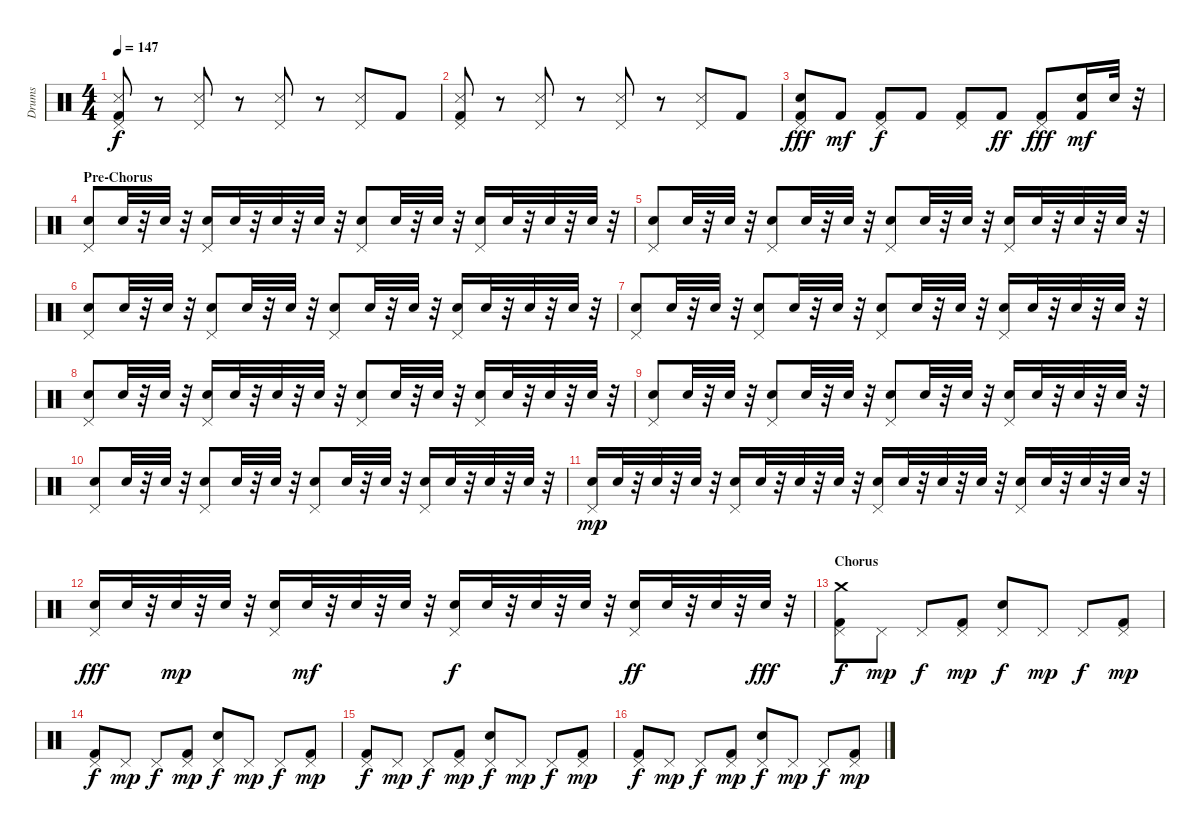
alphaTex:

\track ("Drums" "Drums") {instrument percussion}
\staff {score}
\articulation defaults
\ts (4 4)
\tempo 147
\clef neutral
\ks c
("Pedal Hi-Hat (hit)" "Kick (hit) 2" "Snare (side stick) 3").8{dy f} r.8 ("Pedal Hi-Hat (hit)" "Snare (side stick) 3").8 r.8 ("Pedal Hi-Hat (hit)" "Snare (side stick) 3").8 r.8 ("Pedal Hi-Hat (hit)" "Snare (side stick) 3").8 "Kick (hit) 2".8 |
("Pedal Hi-Hat (hit)" "Kick (hit) 2" "Snare (side stick) 3").8 r.8 ("Pedal Hi-Hat (hit)" "Snare (side stick) 3").8 r.8 ("Pedal Hi-Hat (hit)" "Snare (side stick) 3").8 r.8 ("Pedal Hi-Hat (hit)" "Snare (side stick) 3").8 "Kick (hit) 2".8 |
("Pedal Hi-Hat (hit)" "Kick (hit) 2" "Snare (hit) 2").8{dy fff} "Kick (hit) 2".8{dy mf} ("Pedal Hi-Hat (hit)" "Kick (hit) 2").8{dy f} "Kick (hit) 2".8 ("Pedal Hi-Hat (hit)" "Kick (hit) 2").8 "Kick (hit) 2".8{dy ff} ("Pedal Hi-Hat (hit)" "Kick (hit) 2").8{dy fff} ("Kick (hit) 2" "Snare (hit) 2").16{dy mf} "Snare (hit) 2".32 r.32 |
\section ("" "Pre-Chorus")
("Pedal Hi-Hat (hit)" "Snare (hit) 2").8 "Snare (hit) 2".32 r.32 "Snare (hit) 2".32 r.32 ("Pedal Hi-Hat (hit)" "Snare (hit) 2").16 "Snare (hit) 2".32 r.32 "Snare (hit) 2".32 r.32 "Snare (hit) 2".32 r.32 ("Pedal Hi-Hat (hit)" "Snare (hit) 2").8 "Snare (hit) 2".32 r.32 "Snare (hit) 2".32 r.32 ("Pedal Hi-Hat (hit)" "Snare (hit) 2").16 "Snare (hit) 2".32 r.32 "Snare (hit) 2".32 r.32 "Snare (hit) 2".32 r.32 |
("Pedal Hi-Hat (hit)" "Snare (hit) 2").8 "Snare (hit) 2".32 r.32 "Snare (hit) 2".32 r.32 ("Pedal Hi-Hat (hit)" "Snare (hit) 2").8 "Snare (hit) 2".32 r.32 "Snare (hit) 2".32 r.32 ("Pedal Hi-Hat (hit)" "Snare (hit) 2").8 "Snare (hit) 2".32 r.32 "Snare (hit) 2".32 r.32 ("Pedal Hi-Hat (hit)" "Snare (hit) 2").16 "Snare (hit) 2".32 r.32 "Snare (hit) 2".32 r.32 "Snare (hit) 2".32 r.32 |
("Pedal Hi-Hat (hit)" "Snare (hit) 2").8 "Snare (hit) 2".32 r.32 "Snare (hit) 2".32 r.32 ("Pedal Hi-Hat (hit)" "Snare (hit) 2").8 "Snare (hit) 2".32 r.32 "Snare (hit) 2".32 r.32 ("Pedal Hi-Hat (hit)" "Snare (hit) 2").8 "Snare (hit) 2".32 r.32 "Snare (hit) 2".32 r.32 ("Pedal Hi-Hat (hit)" "Snare (hit) 2").16 "Snare (hit) 2".32 r.32 "Snare (hit) 2".32 r.32 "Snare (hit) 2".32 r.32 |
("Pedal Hi-Hat (hit)" "Snare (hit) 2").8 "Snare (hit) 2".32 r.32 "Snare (hit) 2".32 r.32 ("Pedal Hi-Hat (hit)" "Snare (hit) 2").8 "Snare (hit) 2".32 r.32 "Snare (hit) 2".32 r.32 ("Pedal Hi-Hat (hit)" "Snare (hit) 2").8 "Snare (hit) 2".32 r.32 "Snare (hit) 2".32 r.32 ("Pedal Hi-Hat (hit)" "Snare (hit) 2").16 "Snare (hit) 2".32 r.32 "Snare (hit) 2".32 r.32 "Snare (hit) 2".32 r.32 |
("Pedal Hi-Hat (hit)" "Snare (hit) 2").8 "Snare (hit) 2".32 r.32 "Snare (hit) 2".32 r.32 ("Pedal Hi-Hat (hit)" "Snare (hit) 2").16 "Snare (hit) 2".32 r.32 "Snare (hit) 2".32 r.32 "Snare (hit) 2".32 r.32 ("Pedal Hi-Hat (hit)" "Snare (hit) 2").8 "Snare (hit) 2".32 r.32 "Snare (hit) 2".32 r.32 ("Pedal Hi-Hat (hit)" "Snare (hit) 2").16 "Snare (hit) 2".32 r.32 "Snare (hit) 2".32 r.32 "Snare (hit) 2".32 r.32 |
("Pedal Hi-Hat (hit)" "Snare (hit) 2").8 "Snare (hit) 2".32 r.32 "Snare (hit) 2".32 r.32 ("Pedal Hi-Hat (hit)" "Snare (hit) 2").8 "Snare (hit) 2".32 r.32 "Snare (hit) 2".32 r.32 ("Pedal Hi-Hat (hit)" "Snare (hit) 2").8 "Snare (hit) 2".32 r.32 "Snare (hit) 2".32 r.32 ("Pedal Hi-Hat (hit)" "Snare (hit) 2").16 "Snare (hit) 2".32 r.32 "Snare (hit) 2".32 r.32 "Snare (hit) 2".32 r.32 |
("Pedal Hi-Hat (hit)" "Snare (hit) 2").8 "Snare (hit) 2".32 r.32 "Snare (hit) 2".32 r.32 ("Pedal Hi-Hat (hit)" "Snare (hit) 2").8 "Snare (hit) 2".32 r.32 "Snare (hit) 2".32 r.32 ("Pedal Hi-Hat (hit)" "Snare (hit) 2").8 "Snare (hit) 2".32 r.32 "Snare (hit) 2".32 r.32 ("Pedal Hi-Hat (hit)" "Snare (hit) 2").16 "Snare (hit) 2".32 r.32 "Snare (hit) 2".32 r.32 "Snare (hit) 2".32 r.32 |
("Pedal Hi-Hat (hit)" "Snare (hit) 2").16{dy mp} "Snare (hit) 2".32 r.32 "Snare (hit) 2".32 r.32 "Snare (hit) 2".32 r.32 ("Pedal Hi-Hat (hit)" "Snare (hit) 2").16 "Snare (hit) 2".32 r.32 "Snare (hit) 2".32 r.32 "Snare (hit) 2".32 r.32 ("Pedal Hi-Hat (hit)" "Snare (hit) 2").16 "Snare (hit) 2".32 r.32 "Snare (hit) 2".32 r.32 "Snare (hit) 2".32 r.32 ("Pedal Hi-Hat (hit)" "Snare (hit) 2").16 "Snare (hit) 2".32 r.32 "Snare (hit) 2".32 r.32 "Snare (hit) 2".32 r.32 |
("Pedal Hi-Hat (hit)" "Snare (hit) 2").16{dy fff} "Snare (hit) 2".32 r.32 "Snare (hit) 2".32{dy mp} r.32 "Snare (hit) 2".32 r.32 ("Pedal Hi-Hat (hit)" "Snare (hit) 2").16 "Snare (hit) 2".32{dy mf} r.32 "Snare (hit) 2".32 r.32 "Snare (hit) 2".32 r.32 ("Pedal Hi-Hat (hit)" "Snare (hit) 2").16{dy f} "Snare (hit) 2".32 r.32 "Snare (hit) 2".32 r.32 "Snare (hit) 2".32 r.32 ("Pedal Hi-Hat (hit)" "Snare (hit) 2").16{dy ff} "Snare (hit) 2".32 r.32 "Snare (hit) 2".32 r.32 "Snare (hit) 2".32{dy fff} r.32 |
\section ("" "Chorus")
("Pedal Hi-Hat (hit)" "Kick (hit) 2" "Crash medium (hit)").8{dy f} "Pedal Hi-Hat (hit)".8{dy mp} "Pedal Hi-Hat (hit)".8{dy f} ("Pedal Hi-Hat (hit)" "Kick (hit) 2").8{dy mp} ("Pedal Hi-Hat (hit)" "Snare (hit) 2").8{dy f} "Pedal Hi-Hat (hit)".8{dy mp} "Pedal Hi-Hat (hit)".8{dy f} ("Pedal Hi-Hat (hit)" "Kick (hit) 2").8{dy mp} |
("Pedal Hi-Hat (hit)" "Kick (hit) 2").8{dy f} "Pedal Hi-Hat (hit)".8{dy mp} "Pedal Hi-Hat (hit)".8{dy f} ("Pedal Hi-Hat (hit)" "Kick (hit) 2").8{dy mp} ("Pedal Hi-Hat (hit)" "Snare (hit) 2").8{dy f} "Pedal Hi-Hat (hit)".8{dy mp} "Pedal Hi-Hat (hit)".8{dy f} ("Pedal Hi-Hat (hit)" "Kick (hit) 2").8{dy mp} |
("Pedal Hi-Hat (hit)" "Kick (hit) 2").8{dy f} "Pedal Hi-Hat (hit)".8{dy mp} "Pedal Hi-Hat (hit)".8{dy f} ("Pedal Hi-Hat (hit)" "Kick (hit) 2").8{dy mp} ("Pedal Hi-Hat (hit)" "Snare (hit) 2").8{dy f} "Pedal Hi-Hat (hit)".8{dy mp} "Pedal Hi-Hat (hit)".8{dy f} ("Pedal Hi-Hat (hit)" "Kick (hit) 2").8{dy mp} |
("Pedal Hi-Hat (hit)" "Kick (hit) 2").8{dy f} "Pedal Hi-Hat (hit)".8{dy mp} "Pedal Hi-Hat (hit)".8{dy f} ("Pedal Hi-Hat (hit)" "Kick (hit) 2").8{dy mp} ("Pedal Hi-Hat (hit)" "Snare (hit) 2").8{dy f} "Pedal Hi-Hat (hit)".8{dy mp} "Pedal Hi-Hat (hit)".8{dy f} ("Pedal Hi-Hat (hit)" "Kick (hit) 2").8{dy mp}
